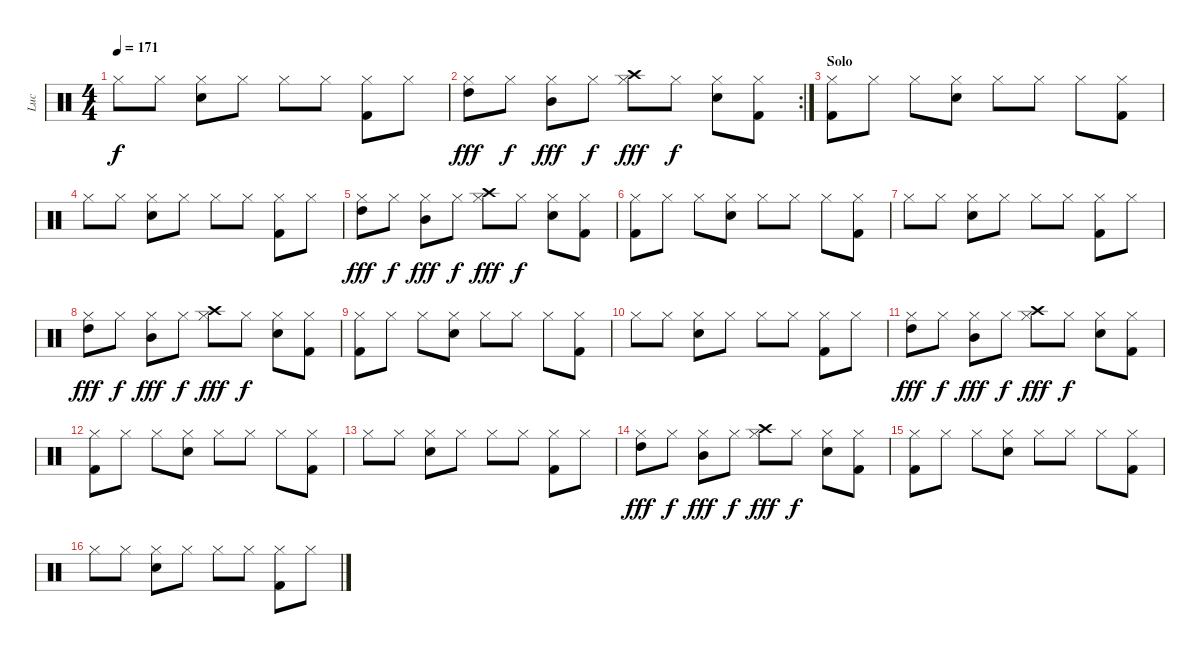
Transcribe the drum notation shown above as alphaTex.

\track ("Luc" "Luc") {instrument percussion}
\staff {score}
\articulation defaults
\ts (4 4)
\tempo 171
\clef neutral
\ks c "Hi-Hat (closed)".8{dy f} "Hi-Hat (closed)".8
("Hi-Hat (closed)" "Snare (hit) 2").8 "Hi-Hat (closed)".8 "Hi-Hat (closed)".8 "Hi-Hat (closed)".8 ("Hi-Hat (closed)" "Kick (hit) 2").8 "Hi-Hat (closed)".8 |
\rc 2
("Hi-Hat (closed)" "High Tom (hit)").8{dy fff} "Hi-Hat (closed)".8{dy f} ("Hi-Hat (closed)" "Mid Tom (hit)").8{dy fff} "Hi-Hat (closed)".8{dy f} ("Hi-Hat (closed)" "Crash high (hit)").8{dy fff} "Hi-Hat (closed)".8{dy f} ("Hi-Hat (closed)" "Snare (hit) 2").8 ("Hi-Hat (closed)" "Kick (hit) 2").8 |
\section ("" "Solo")
("Hi-Hat (closed)" "Kick (hit) 2").8 "Hi-Hat (closed)".8 "Hi-Hat (closed)".8 ("Hi-Hat (closed)" "Snare (hit) 2").8 "Hi-Hat (closed)".8 "Hi-Hat (closed)".8 "Hi-Hat (closed)".8 ("Hi-Hat (closed)" "Kick (hit) 2").8 |
"Hi-Hat (closed)".8 "Hi-Hat (closed)".8 ("Hi-Hat (closed)" "Snare (hit) 2").8 "Hi-Hat (closed)".8 "Hi-Hat (closed)".8 "Hi-Hat (closed)".8 ("Hi-Hat (closed)" "Kick (hit) 2").8 "Hi-Hat (closed)".8 |
("Hi-Hat (closed)" "High Tom (hit)").8{dy fff} "Hi-Hat (closed)".8{dy f} ("Hi-Hat (closed)" "Mid Tom (hit)").8{dy fff} "Hi-Hat (closed)".8{dy f} ("Hi-Hat (closed)" "Crash high (hit)").8{dy fff} "Hi-Hat (closed)".8{dy f} ("Hi-Hat (closed)" "Snare (hit) 2").8 ("Hi-Hat (closed)" "Kick (hit) 2").8 |
("Hi-Hat (closed)" "Kick (hit) 2").8 "Hi-Hat (closed)".8 "Hi-Hat (closed)".8 ("Hi-Hat (closed)" "Snare (hit) 2").8 "Hi-Hat (closed)".8 "Hi-Hat (closed)".8 "Hi-Hat (closed)".8 ("Hi-Hat (closed)" "Kick (hit) 2").8 |
"Hi-Hat (closed)".8 "Hi-Hat (closed)".8 ("Hi-Hat (closed)" "Snare (hit) 2").8 "Hi-Hat (closed)".8 "Hi-Hat (closed)".8 "Hi-Hat (closed)".8 ("Hi-Hat (closed)" "Kick (hit) 2").8 "Hi-Hat (closed)".8 |
("Hi-Hat (closed)" "High Tom (hit)").8{dy fff} "Hi-Hat (closed)".8{dy f} ("Hi-Hat (closed)" "Mid Tom (hit)").8{dy fff} "Hi-Hat (closed)".8{dy f} ("Hi-Hat (closed)" "Crash high (hit)").8{dy fff} "Hi-Hat (closed)".8{dy f} ("Hi-Hat (closed)" "Snare (hit) 2").8 ("Hi-Hat (closed)" "Kick (hit) 2").8 |
("Hi-Hat (closed)" "Kick (hit) 2").8 "Hi-Hat (closed)".8 "Hi-Hat (closed)".8 ("Hi-Hat (closed)" "Snare (hit) 2").8 "Hi-Hat (closed)".8 "Hi-Hat (closed)".8 "Hi-Hat (closed)".8 ("Hi-Hat (closed)" "Kick (hit) 2").8 |
"Hi-Hat (closed)".8 "Hi-Hat (closed)".8 ("Hi-Hat (closed)" "Snare (hit) 2").8 "Hi-Hat (closed)".8 "Hi-Hat (closed)".8 "Hi-Hat (closed)".8 ("Hi-Hat (closed)" "Kick (hit) 2").8 "Hi-Hat (closed)".8 |
("Hi-Hat (closed)" "High Tom (hit)").8{dy fff} "Hi-Hat (closed)".8{dy f} ("Hi-Hat (closed)" "Mid Tom (hit)").8{dy fff} "Hi-Hat (closed)".8{dy f} ("Hi-Hat (closed)" "Crash high (hit)").8{dy fff} "Hi-Hat (closed)".8{dy f} ("Hi-Hat (closed)" "Snare (hit) 2").8 ("Hi-Hat (closed)" "Kick (hit) 2").8 |
("Hi-Hat (closed)" "Kick (hit) 2").8 "Hi-Hat (closed)".8 "Hi-Hat (closed)".8 ("Hi-Hat (closed)" "Snare (hit) 2").8 "Hi-Hat (closed)".8 "Hi-Hat (closed)".8 "Hi-Hat (closed)".8 ("Hi-Hat (closed)" "Kick (hit) 2").8 |
"Hi-Hat (closed)".8 "Hi-Hat (closed)".8 ("Hi-Hat (closed)" "Snare (hit) 2").8 "Hi-Hat (closed)".8 "Hi-Hat (closed)".8 "Hi-Hat (closed)".8 ("Hi-Hat (closed)" "Kick (hit) 2").8 "Hi-Hat (closed)".8 |
("Hi-Hat (closed)" "High Tom (hit)").8{dy fff} "Hi-Hat (closed)".8{dy f} ("Hi-Hat (closed)" "Mid Tom (hit)").8{dy fff} "Hi-Hat (closed)".8{dy f} ("Hi-Hat (closed)" "Crash high (hit)").8{dy fff} "Hi-Hat (closed)".8{dy f} ("Hi-Hat (closed)" "Snare (hit) 2").8 ("Hi-Hat (closed)" "Kick (hit) 2").8 |
("Hi-Hat (closed)" "Kick (hit) 2").8 "Hi-Hat (closed)".8 "Hi-Hat (closed)".8 ("Hi-Hat (closed)" "Snare (hit) 2").8 "Hi-Hat (closed)".8 "Hi-Hat (closed)".8 "Hi-Hat (closed)".8 ("Hi-Hat (closed)" "Kick (hit) 2").8 |
"Hi-Hat (closed)".8 "Hi-Hat (closed)".8 ("Hi-Hat (closed)" "Snare (hit) 2").8 "Hi-Hat (closed)".8 "Hi-Hat (closed)".8 "Hi-Hat (closed)".8 ("Hi-Hat (closed)" "Kick (hit) 2").8 "Hi-Hat (closed)".8
